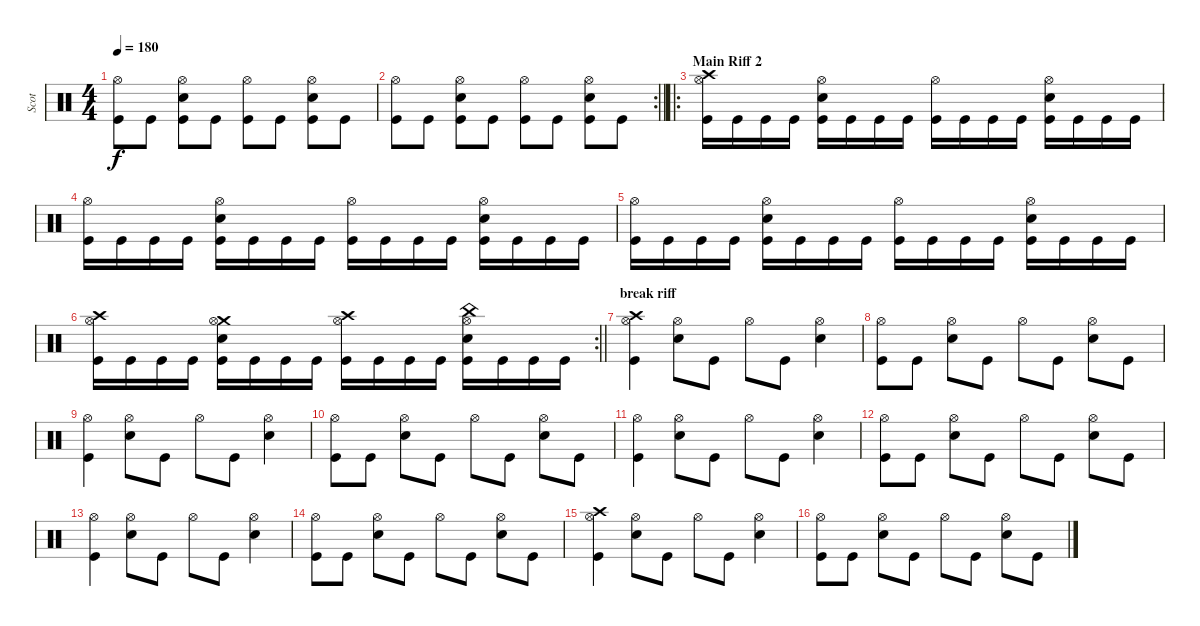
\track ("Scot" "Scot") {instrument percussion}
\staff {score}
\articulation defaults
\ts (4 4)
\tempo 180
\clef neutral
\ks c
("Hi-Hat (open)" "Kick (hit)").8{dy f} "Kick (hit)".8 ("Electric Snare (hit)" "Hi-Hat (open)" "Kick (hit)").8 "Kick (hit)".8 ("Hi-Hat (open)" "Kick (hit)").8 "Kick (hit)".8 ("Electric Snare (hit)" "Hi-Hat (open)" "Kick (hit)").8 "Kick (hit)".8 |
\rc 2
\barLineRight lightlight
("Hi-Hat (open)" "Kick (hit)").8 "Kick (hit)".8 ("Electric Snare (hit)" "Hi-Hat (open)" "Kick (hit)").8 "Kick (hit)".8 ("Hi-Hat (open)" "Kick (hit)").8 "Kick (hit)".8 ("Electric Snare (hit)" "Hi-Hat (open)" "Kick (hit)").8 "Kick (hit)".8 |
\ro
\section ("" "Main Riff 2")
("Crash high (hit)" "Hi-Hat (open)" "Kick (hit)").16 "Kick (hit)".16 "Kick (hit)".16 "Kick (hit)".16 ("Electric Snare (hit)" "Hi-Hat (open)" "Kick (hit)").16 "Kick (hit)".16 "Kick (hit)".16 "Kick (hit)".16 ("Hi-Hat (open)" "Kick (hit)").16 "Kick (hit)".16 "Kick (hit)".16 "Kick (hit)".16 ("Electric Snare (hit)" "Hi-Hat (open)" "Kick (hit)").16 "Kick (hit)".16 "Kick (hit)".16 "Kick (hit)".16 |
("Hi-Hat (open)" "Kick (hit)").16 "Kick (hit)".16 "Kick (hit)".16 "Kick (hit)".16 ("Electric Snare (hit)" "Hi-Hat (open)" "Kick (hit)").16 "Kick (hit)".16 "Kick (hit)".16 "Kick (hit)".16 ("Hi-Hat (open)" "Kick (hit)").16 "Kick (hit)".16 "Kick (hit)".16 "Kick (hit)".16 ("Electric Snare (hit)" "Hi-Hat (open)" "Kick (hit)").16 "Kick (hit)".16 "Kick (hit)".16 "Kick (hit)".16 |
("Hi-Hat (open)" "Kick (hit)").16 "Kick (hit)".16 "Kick (hit)".16 "Kick (hit)".16 ("Electric Snare (hit)" "Hi-Hat (open)" "Kick (hit)").16 "Kick (hit)".16 "Kick (hit)".16 "Kick (hit)".16 ("Hi-Hat (open)" "Kick (hit)").16 "Kick (hit)".16 "Kick (hit)".16 "Kick (hit)".16 ("Electric Snare (hit)" "Hi-Hat (open)" "Kick (hit)").16 "Kick (hit)".16 "Kick (hit)".16 "Kick (hit)".16 |
\rc 2
\barLineRight lightlight
("Crash high (hit)" "Hi-Hat (open)" "Kick (hit)").16 "Kick (hit)".16 "Kick (hit)".16 "Kick (hit)".16 ("Crash medium (hit)" "Electric Snare (hit)" "Hi-Hat (open)" "Kick (hit)").16 "Kick (hit)".16 "Kick (hit)".16 "Kick (hit)".16 ("Crash high (hit)" "Hi-Hat (open)" "Kick (hit)").16 "Kick (hit)".16 "Kick (hit)".16 "Kick (hit)".16 ("China (hit)" "Electric Snare (hit)" "Hi-Hat (open)" "Kick (hit)").16 "Kick (hit)".16 "Kick (hit)".16 "Kick (hit)".16 |
\section ("" "break riff")
("Crash high (hit)" "Hi-Hat (open)" "Kick (hit)").4 ("Electric Snare (hit)" "Hi-Hat (open)").8 "Kick (hit)".8 "Hi-Hat (open)".8 "Kick (hit)".8 ("Electric Snare (hit)" "Hi-Hat (open)").4 |
("Hi-Hat (open)" "Kick (hit)").8 "Kick (hit)".8 ("Electric Snare (hit)" "Hi-Hat (open)").8 "Kick (hit)".8 "Hi-Hat (open)".8 "Kick (hit)".8 ("Electric Snare (hit)" "Hi-Hat (open)").8 "Kick (hit)".8 |
("Hi-Hat (open)" "Kick (hit)").4 ("Electric Snare (hit)" "Hi-Hat (open)").8 "Kick (hit)".8 "Hi-Hat (open)".8 "Kick (hit)".8 ("Electric Snare (hit)" "Hi-Hat (open)").4 |
("Hi-Hat (open)" "Kick (hit)").8 "Kick (hit)".8 ("Electric Snare (hit)" "Hi-Hat (open)").8 "Kick (hit)".8 "Hi-Hat (open)".8 "Kick (hit)".8 ("Electric Snare (hit)" "Hi-Hat (open)").8 "Kick (hit)".8 |
("Hi-Hat (open)" "Kick (hit)").4 ("Electric Snare (hit)" "Hi-Hat (open)").8 "Kick (hit)".8 "Hi-Hat (open)".8 "Kick (hit)".8 ("Electric Snare (hit)" "Hi-Hat (open)").4 |
("Hi-Hat (open)" "Kick (hit)").8 "Kick (hit)".8 ("Electric Snare (hit)" "Hi-Hat (open)").8 "Kick (hit)".8 "Hi-Hat (open)".8 "Kick (hit)".8 ("Electric Snare (hit)" "Hi-Hat (open)").8 "Kick (hit)".8 |
("Hi-Hat (open)" "Kick (hit)").4 ("Electric Snare (hit)" "Hi-Hat (open)").8 "Kick (hit)".8 "Hi-Hat (open)".8 "Kick (hit)".8 ("Electric Snare (hit)" "Hi-Hat (open)").4 |
("Hi-Hat (open)" "Kick (hit)").8 "Kick (hit)".8 ("Electric Snare (hit)" "Hi-Hat (open)").8 "Kick (hit)".8 "Hi-Hat (open)".8 "Kick (hit)".8 ("Electric Snare (hit)" "Hi-Hat (open)").8 "Kick (hit)".8 |
("Crash high (hit)" "Hi-Hat (open)" "Kick (hit)").4 ("Electric Snare (hit)" "Hi-Hat (open)").8 "Kick (hit)".8 "Hi-Hat (open)".8 "Kick (hit)".8 ("Electric Snare (hit)" "Hi-Hat (open)").4 |
("Hi-Hat (open)" "Kick (hit)").8 "Kick (hit)".8 ("Electric Snare (hit)" "Hi-Hat (open)").8 "Kick (hit)".8 "Hi-Hat (open)".8 "Kick (hit)".8 ("Electric Snare (hit)" "Hi-Hat (open)").8 "Kick (hit)".8
